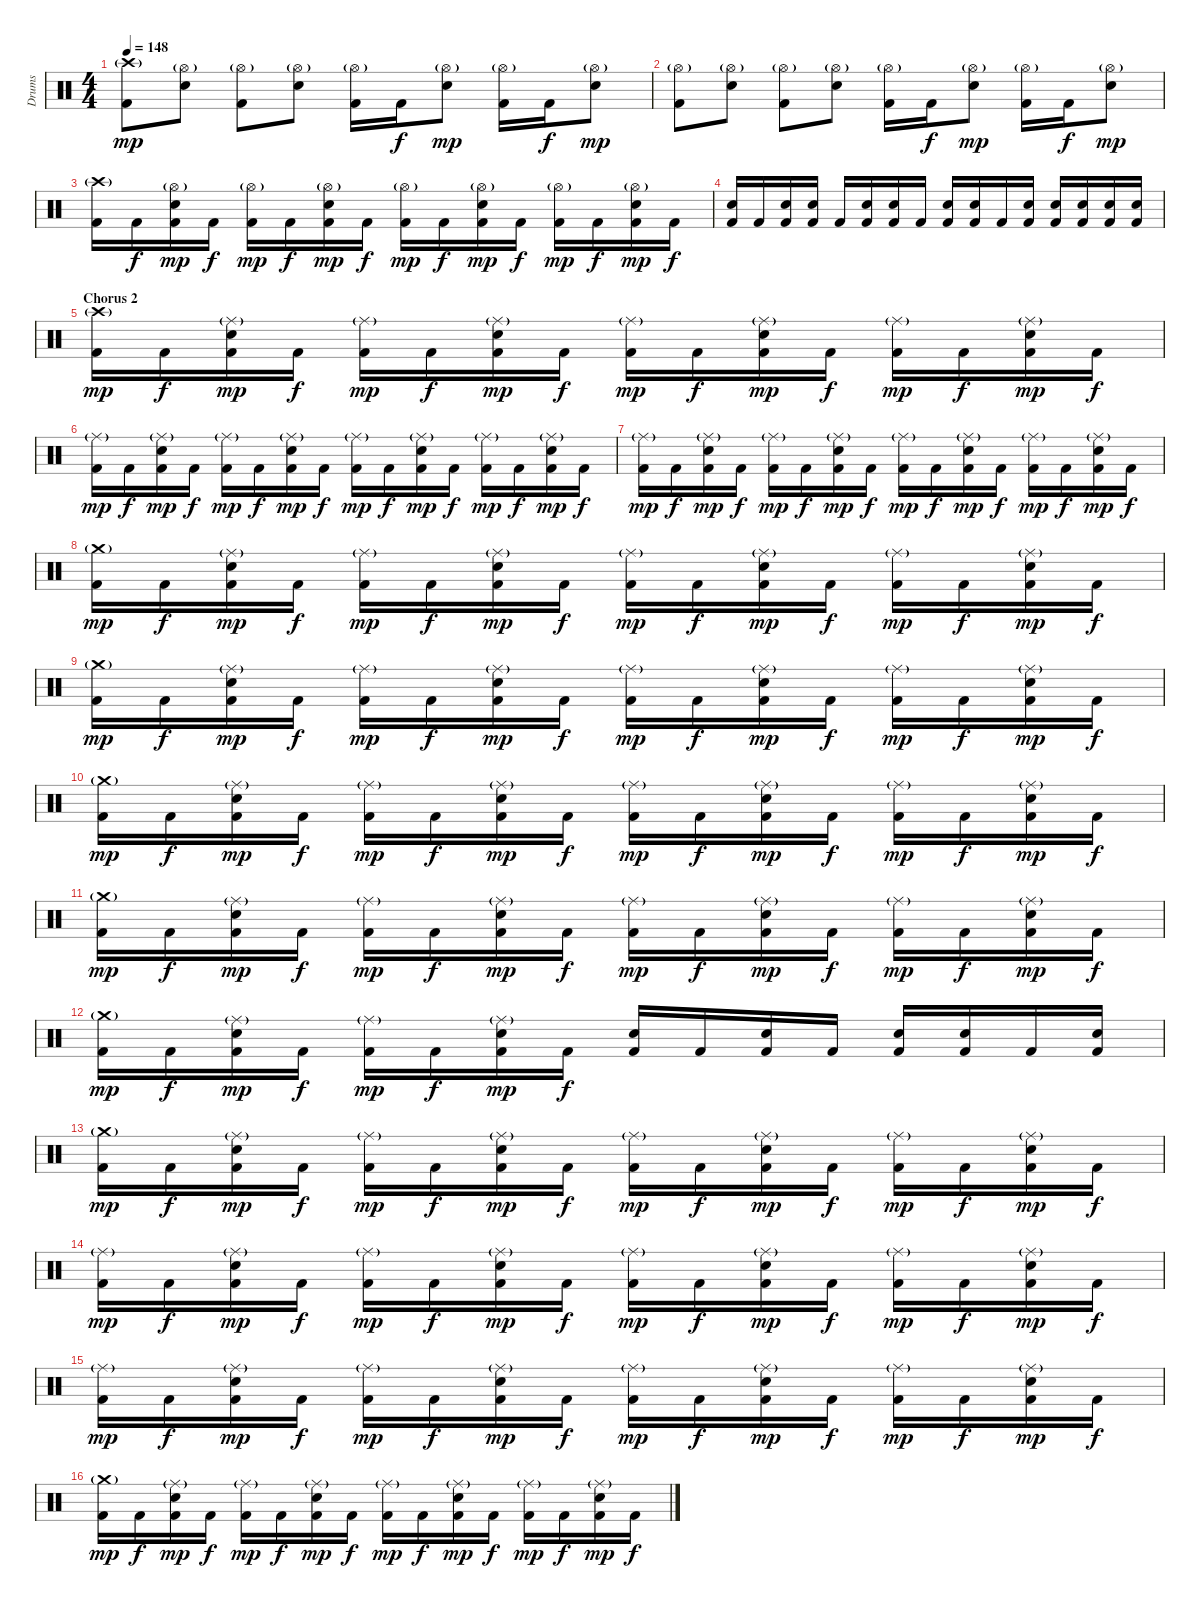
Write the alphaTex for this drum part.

\track ("Drums" "Drums") {instrument percussion}
\staff {score}
\articulation defaults
\ts (4 4)
\tempo 148
\clef neutral
\ks c
("Crash high (hit)"{g} "Kick (hit) 2").8{dy mp} ("Hi-Hat (open)"{g} "Snare (hit) 2").8 ("Hi-Hat (open)"{g} "Kick (hit) 2").8 ("Hi-Hat (open)"{g} "Snare (hit) 2").8 ("Hi-Hat (open)"{g} "Kick (hit) 2").16 "Kick (hit) 2".16{dy f} ("Hi-Hat (open)"{g} "Snare (hit) 2").8{dy mp} ("Hi-Hat (open)"{g} "Kick (hit) 2").16 "Kick (hit) 2".16{dy f} ("Hi-Hat (open)"{g} "Snare (hit) 2").8{dy mp} |
("Hi-Hat (open)"{g} "Kick (hit) 2").8 ("Hi-Hat (open)"{g} "Snare (hit) 2").8 ("Hi-Hat (open)"{g} "Kick (hit) 2").8 ("Hi-Hat (open)"{g} "Snare (hit) 2").8 ("Hi-Hat (open)"{g} "Kick (hit) 2").16 "Kick (hit) 2".16{dy f} ("Hi-Hat (open)"{g} "Snare (hit) 2").8{dy mp} ("Hi-Hat (open)"{g} "Kick (hit) 2").16 "Kick (hit) 2".16{dy f} ("Hi-Hat (open)"{g} "Snare (hit) 2").8{dy mp} |
("Crash high (hit)"{g} "Kick (hit) 2").16 "Kick (hit) 2".16{dy f} ("Hi-Hat (open)"{g} "Snare (hit) 2" "Kick (hit) 2").16{dy mp} "Kick (hit) 2".16{dy f} ("Hi-Hat (open)"{g} "Kick (hit) 2").16{dy mp} "Kick (hit) 2".16{dy f} ("Hi-Hat (open)"{g} "Snare (hit) 2" "Kick (hit) 2").16{dy mp} "Kick (hit) 2".16{dy f} ("Hi-Hat (open)"{g} "Kick (hit) 2").16{dy mp} "Kick (hit) 2".16{dy f} ("Hi-Hat (open)"{g} "Snare (hit) 2" "Kick (hit) 2").16{dy mp} "Kick (hit) 2".16{dy f} ("Hi-Hat (open)"{g} "Kick (hit) 2").16{dy mp} "Kick (hit) 2".16{dy f} ("Hi-Hat (open)"{g} "Snare (hit) 2" "Kick (hit) 2").16{dy mp} "Kick (hit) 2".16{dy f} |
("Snare (hit) 2" "Kick (hit) 2").16 "Kick (hit) 2".16 ("Snare (hit) 2" "Kick (hit) 2").16 ("Snare (hit) 2" "Kick (hit) 2").16 "Kick (hit) 2".16 ("Snare (hit) 2" "Kick (hit) 2").16 ("Snare (hit) 2" "Kick (hit) 2").16 "Kick (hit) 2".16 ("Snare (hit) 2" "Kick (hit) 2").16 ("Snare (hit) 2" "Kick (hit) 2").16 "Kick (hit) 2".16 ("Snare (hit) 2" "Kick (hit) 2").16 ("Snare (hit) 2" "Kick (hit) 2").16 ("Snare (hit) 2" "Kick (hit) 2").16 ("Snare (hit) 2" "Kick (hit) 2").16 ("Snare (hit) 2" "Kick (hit) 2").16 |
\section ("" "Chorus 2")
("Crash high (hit)"{g} "Kick (hit) 2").16{dy mp} "Kick (hit) 2".16{dy f} ("Ride (middle)"{g} "Snare (hit) 2" "Kick (hit) 2").16{dy mp} "Kick (hit) 2".16{dy f} ("Ride (middle)"{g} "Kick (hit) 2").16{dy mp} "Kick (hit) 2".16{dy f} ("Ride (middle)"{g} "Snare (hit) 2" "Kick (hit) 2").16{dy mp} "Kick (hit) 2".16{dy f} ("Ride (middle)"{g} "Kick (hit) 2").16{dy mp} "Kick (hit) 2".16{dy f} ("Ride (middle)"{g} "Snare (hit) 2" "Kick (hit) 2").16{dy mp} "Kick (hit) 2".16{dy f} ("Ride (middle)"{g} "Kick (hit) 2").16{dy mp} "Kick (hit) 2".16{dy f} ("Ride (middle)"{g} "Snare (hit) 2" "Kick (hit) 2").16{dy mp} "Kick (hit) 2".16{dy f} |
("Ride (middle)"{g} "Kick (hit) 2").16{dy mp} "Kick (hit) 2".16{dy f} ("Ride (middle)"{g} "Snare (hit) 2" "Kick (hit) 2").16{dy mp} "Kick (hit) 2".16{dy f} ("Ride (middle)"{g} "Kick (hit) 2").16{dy mp} "Kick (hit) 2".16{dy f} ("Ride (middle)"{g} "Snare (hit) 2" "Kick (hit) 2").16{dy mp} "Kick (hit) 2".16{dy f} ("Ride (middle)"{g} "Kick (hit) 2").16{dy mp} "Kick (hit) 2".16{dy f} ("Ride (middle)"{g} "Snare (hit) 2" "Kick (hit) 2").16{dy mp} "Kick (hit) 2".16{dy f} ("Ride (middle)"{g} "Kick (hit) 2").16{dy mp} "Kick (hit) 2".16{dy f} ("Ride (middle)"{g} "Snare (hit) 2" "Kick (hit) 2").16{dy mp} "Kick (hit) 2".16{dy f} |
("Ride (middle)"{g} "Kick (hit) 2").16{dy mp} "Kick (hit) 2".16{dy f} ("Ride (middle)"{g} "Snare (hit) 2" "Kick (hit) 2").16{dy mp} "Kick (hit) 2".16{dy f} ("Ride (middle)"{g} "Kick (hit) 2").16{dy mp} "Kick (hit) 2".16{dy f} ("Ride (middle)"{g} "Snare (hit) 2" "Kick (hit) 2").16{dy mp} "Kick (hit) 2".16{dy f} ("Ride (middle)"{g} "Kick (hit) 2").16{dy mp} "Kick (hit) 2".16{dy f} ("Ride (middle)"{g} "Snare (hit) 2" "Kick (hit) 2").16{dy mp} "Kick (hit) 2".16{dy f} ("Ride (middle)"{g} "Kick (hit) 2").16{dy mp} "Kick (hit) 2".16{dy f} ("Ride (middle)"{g} "Snare (hit) 2" "Kick (hit) 2").16{dy mp} "Kick (hit) 2".16{dy f} |
("Crash medium (hit)"{g} "Kick (hit) 2").16{dy mp} "Kick (hit) 2".16{dy f} ("Ride (middle)"{g} "Snare (hit) 2" "Kick (hit) 2").16{dy mp} "Kick (hit) 2".16{dy f} ("Ride (middle)"{g} "Kick (hit) 2").16{dy mp} "Kick (hit) 2".16{dy f} ("Ride (middle)"{g} "Snare (hit) 2" "Kick (hit) 2").16{dy mp} "Kick (hit) 2".16{dy f} ("Ride (middle)"{g} "Kick (hit) 2").16{dy mp} "Kick (hit) 2".16{dy f} ("Ride (middle)"{g} "Snare (hit) 2" "Kick (hit) 2").16{dy mp} "Kick (hit) 2".16{dy f} ("Ride (middle)"{g} "Kick (hit) 2").16{dy mp} "Kick (hit) 2".16{dy f} ("Ride (middle)"{g} "Snare (hit) 2" "Kick (hit) 2").16{dy mp} "Kick (hit) 2".16{dy f} |
("Crash medium (hit)"{g} "Kick (hit) 2").16{dy mp} "Kick (hit) 2".16{dy f} ("Ride (middle)"{g} "Snare (hit) 2" "Kick (hit) 2").16{dy mp} "Kick (hit) 2".16{dy f} ("Ride (middle)"{g} "Kick (hit) 2").16{dy mp} "Kick (hit) 2".16{dy f} ("Ride (middle)"{g} "Snare (hit) 2" "Kick (hit) 2").16{dy mp} "Kick (hit) 2".16{dy f} ("Ride (middle)"{g} "Kick (hit) 2").16{dy mp} "Kick (hit) 2".16{dy f} ("Ride (middle)"{g} "Snare (hit) 2" "Kick (hit) 2").16{dy mp} "Kick (hit) 2".16{dy f} ("Ride (middle)"{g} "Kick (hit) 2").16{dy mp} "Kick (hit) 2".16{dy f} ("Ride (middle)"{g} "Snare (hit) 2" "Kick (hit) 2").16{dy mp} "Kick (hit) 2".16{dy f} |
("Crash medium (hit)"{g} "Kick (hit) 2").16{dy mp} "Kick (hit) 2".16{dy f} ("Ride (middle)"{g} "Snare (hit) 2" "Kick (hit) 2").16{dy mp} "Kick (hit) 2".16{dy f} ("Ride (middle)"{g} "Kick (hit) 2").16{dy mp} "Kick (hit) 2".16{dy f} ("Ride (middle)"{g} "Snare (hit) 2" "Kick (hit) 2").16{dy mp} "Kick (hit) 2".16{dy f} ("Ride (middle)"{g} "Kick (hit) 2").16{dy mp} "Kick (hit) 2".16{dy f} ("Ride (middle)"{g} "Snare (hit) 2" "Kick (hit) 2").16{dy mp} "Kick (hit) 2".16{dy f} ("Ride (middle)"{g} "Kick (hit) 2").16{dy mp} "Kick (hit) 2".16{dy f} ("Ride (middle)"{g} "Snare (hit) 2" "Kick (hit) 2").16{dy mp} "Kick (hit) 2".16{dy f} |
("Crash medium (hit)"{g} "Kick (hit) 2").16{dy mp} "Kick (hit) 2".16{dy f} ("Ride (middle)"{g} "Snare (hit) 2" "Kick (hit) 2").16{dy mp} "Kick (hit) 2".16{dy f} ("Ride (middle)"{g} "Kick (hit) 2").16{dy mp} "Kick (hit) 2".16{dy f} ("Ride (middle)"{g} "Snare (hit) 2" "Kick (hit) 2").16{dy mp} "Kick (hit) 2".16{dy f} ("Ride (middle)"{g} "Kick (hit) 2").16{dy mp} "Kick (hit) 2".16{dy f} ("Ride (middle)"{g} "Snare (hit) 2" "Kick (hit) 2").16{dy mp} "Kick (hit) 2".16{dy f} ("Ride (middle)"{g} "Kick (hit) 2").16{dy mp} "Kick (hit) 2".16{dy f} ("Ride (middle)"{g} "Snare (hit) 2" "Kick (hit) 2").16{dy mp} "Kick (hit) 2".16{dy f} |
("Crash medium (hit)"{g} "Kick (hit) 2").16{dy mp} "Kick (hit) 2".16{dy f} ("Ride (middle)"{g} "Snare (hit) 2" "Kick (hit) 2").16{dy mp} "Kick (hit) 2".16{dy f} ("Ride (middle)"{g} "Kick (hit) 2").16{dy mp} "Kick (hit) 2".16{dy f} ("Ride (middle)"{g} "Snare (hit) 2" "Kick (hit) 2").16{dy mp} "Kick (hit) 2".16{dy f} ("Snare (hit) 2" "Kick (hit) 2").16 "Kick (hit) 2".16 ("Snare (hit) 2" "Kick (hit) 2").16 "Kick (hit) 2".16 ("Snare (hit) 2" "Kick (hit) 2").16 ("Snare (hit) 2" "Kick (hit) 2").16 "Kick (hit) 2".16 ("Snare (hit) 2" "Kick (hit) 2").16 |
("Crash medium (hit)"{g} "Kick (hit) 2").16{dy mp} "Kick (hit) 2".16{dy f} ("Ride (middle)"{g} "Snare (hit) 2" "Kick (hit) 2").16{dy mp} "Kick (hit) 2".16{dy f} ("Ride (middle)"{g} "Kick (hit) 2").16{dy mp} "Kick (hit) 2".16{dy f} ("Ride (middle)"{g} "Snare (hit) 2" "Kick (hit) 2").16{dy mp} "Kick (hit) 2".16{dy f} ("Ride (middle)"{g} "Kick (hit) 2").16{dy mp} "Kick (hit) 2".16{dy f} ("Ride (middle)"{g} "Snare (hit) 2" "Kick (hit) 2").16{dy mp} "Kick (hit) 2".16{dy f} ("Ride (middle)"{g} "Kick (hit) 2").16{dy mp} "Kick (hit) 2".16{dy f} ("Ride (middle)"{g} "Snare (hit) 2" "Kick (hit) 2").16{dy mp} "Kick (hit) 2".16{dy f} |
("Ride (middle)"{g} "Kick (hit) 2").16{dy mp} "Kick (hit) 2".16{dy f} ("Ride (middle)"{g} "Snare (hit) 2" "Kick (hit) 2").16{dy mp} "Kick (hit) 2".16{dy f} ("Ride (middle)"{g} "Kick (hit) 2").16{dy mp} "Kick (hit) 2".16{dy f} ("Ride (middle)"{g} "Snare (hit) 2" "Kick (hit) 2").16{dy mp} "Kick (hit) 2".16{dy f} ("Ride (middle)"{g} "Kick (hit) 2").16{dy mp} "Kick (hit) 2".16{dy f} ("Ride (middle)"{g} "Snare (hit) 2" "Kick (hit) 2").16{dy mp} "Kick (hit) 2".16{dy f} ("Ride (middle)"{g} "Kick (hit) 2").16{dy mp} "Kick (hit) 2".16{dy f} ("Ride (middle)"{g} "Snare (hit) 2" "Kick (hit) 2").16{dy mp} "Kick (hit) 2".16{dy f} |
("Ride (middle)"{g} "Kick (hit) 2").16{dy mp} "Kick (hit) 2".16{dy f} ("Ride (middle)"{g} "Snare (hit) 2" "Kick (hit) 2").16{dy mp} "Kick (hit) 2".16{dy f} ("Ride (middle)"{g} "Kick (hit) 2").16{dy mp} "Kick (hit) 2".16{dy f} ("Ride (middle)"{g} "Snare (hit) 2" "Kick (hit) 2").16{dy mp} "Kick (hit) 2".16{dy f} ("Ride (middle)"{g} "Kick (hit) 2").16{dy mp} "Kick (hit) 2".16{dy f} ("Ride (middle)"{g} "Snare (hit) 2" "Kick (hit) 2").16{dy mp} "Kick (hit) 2".16{dy f} ("Ride (middle)"{g} "Kick (hit) 2").16{dy mp} "Kick (hit) 2".16{dy f} ("Ride (middle)"{g} "Snare (hit) 2" "Kick (hit) 2").16{dy mp} "Kick (hit) 2".16{dy f} |
("Crash medium (hit)"{g} "Kick (hit) 2").16{dy mp} "Kick (hit) 2".16{dy f} ("Ride (middle)"{g} "Snare (hit) 2" "Kick (hit) 2").16{dy mp} "Kick (hit) 2".16{dy f} ("Ride (middle)"{g} "Kick (hit) 2").16{dy mp} "Kick (hit) 2".16{dy f} ("Ride (middle)"{g} "Snare (hit) 2" "Kick (hit) 2").16{dy mp} "Kick (hit) 2".16{dy f} ("Ride (middle)"{g} "Kick (hit) 2").16{dy mp} "Kick (hit) 2".16{dy f} ("Ride (middle)"{g} "Snare (hit) 2" "Kick (hit) 2").16{dy mp} "Kick (hit) 2".16{dy f} ("Ride (middle)"{g} "Kick (hit) 2").16{dy mp} "Kick (hit) 2".16{dy f} ("Ride (middle)"{g} "Snare (hit) 2" "Kick (hit) 2").16{dy mp} "Kick (hit) 2".16{dy f}
